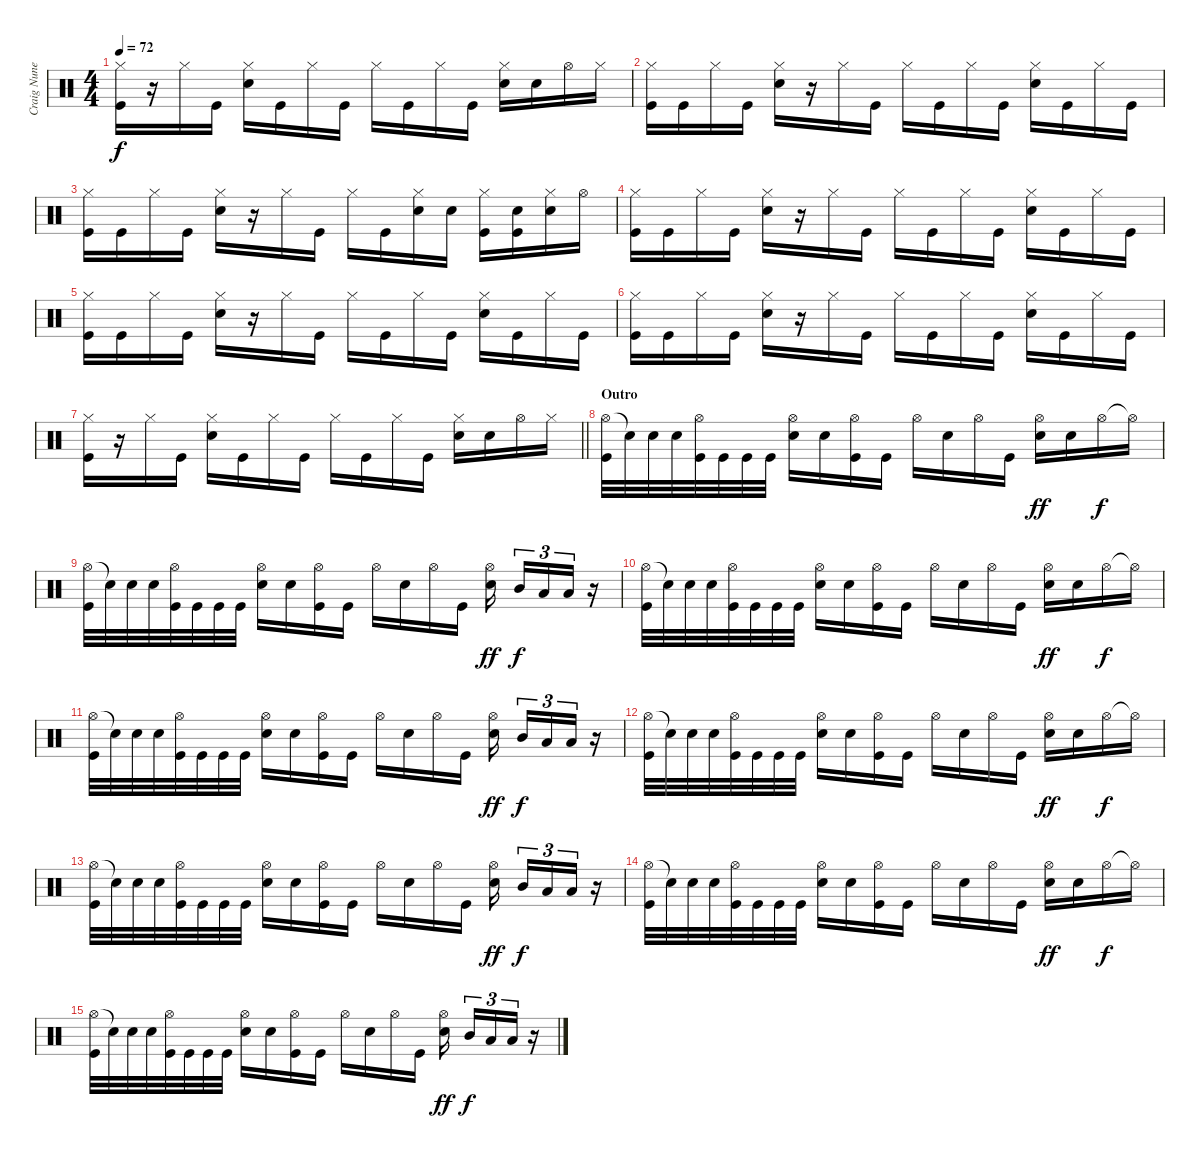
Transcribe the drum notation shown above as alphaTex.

\track ("Craig Nunenmacher" "Craig Nune") {instrument percussion}
\staff {score}
\articulation defaults
\ts (4 4)
\tempo 72
\clef neutral
\ks c
("Hi-Hat (closed)" "Kick (hit)").16{dy f} r.16 "Hi-Hat (closed)".16 "Kick (hit)".16 ("Snare (hit) 2" "Hi-Hat (closed)").16 "Kick (hit)".16 "Hi-Hat (closed)".16 "Kick (hit)".16 "Hi-Hat (closed)".16 "Kick (hit)".16 "Hi-Hat (closed)".16 "Kick (hit)".16 ("Snare (hit) 2" "Hi-Hat (closed)").16 "Snare (hit) 2".16 "Hi-Hat (open)".16 "Hi-Hat (closed)".16 |
("Hi-Hat (closed)" "Kick (hit)").16 "Kick (hit)".16 "Hi-Hat (closed)".16 "Kick (hit)".16 ("Snare (hit) 2" "Hi-Hat (closed)").16 r.16 "Hi-Hat (closed)".16 "Kick (hit)".16 "Hi-Hat (closed)".16 "Kick (hit)".16 "Hi-Hat (closed)".16 "Kick (hit)".16 ("Snare (hit) 2" "Hi-Hat (closed)").16 "Kick (hit)".16 "Hi-Hat (closed)".16 "Kick (hit)".16 |
("Hi-Hat (closed)" "Kick (hit)").16 "Kick (hit)".16 "Hi-Hat (closed)".16 "Kick (hit)".16 ("Snare (hit) 2" "Hi-Hat (closed)").16 r.16 "Hi-Hat (closed)".16 "Kick (hit)".16 "Hi-Hat (closed)".16 "Kick (hit)".16 ("Snare (hit) 2" "Hi-Hat (closed)").16 "Snare (hit) 2".16 ("Hi-Hat (closed)" "Kick (hit)").16 ("Snare (hit) 2" "Kick (hit)").16 ("Snare (hit) 2" "Hi-Hat (closed)").16 "Hi-Hat (open)".16 |
("Hi-Hat (closed)" "Kick (hit)").16 "Kick (hit)".16 "Hi-Hat (closed)".16 "Kick (hit)".16 ("Snare (hit) 2" "Hi-Hat (closed)").16 r.16 "Hi-Hat (closed)".16 "Kick (hit)".16 "Hi-Hat (closed)".16 "Kick (hit)".16 "Hi-Hat (closed)".16 "Kick (hit)".16 ("Snare (hit) 2" "Hi-Hat (closed)").16 "Kick (hit)".16 "Hi-Hat (closed)".16 "Kick (hit)".16 |
("Hi-Hat (closed)" "Kick (hit)").16 "Kick (hit)".16 "Hi-Hat (closed)".16 "Kick (hit)".16 ("Snare (hit) 2" "Hi-Hat (closed)").16 r.16 "Hi-Hat (closed)".16 "Kick (hit)".16 "Hi-Hat (closed)".16 "Kick (hit)".16 "Hi-Hat (closed)".16 "Kick (hit)".16 ("Snare (hit) 2" "Hi-Hat (closed)").16 "Kick (hit)".16 "Hi-Hat (closed)".16 "Kick (hit)".16 |
("Hi-Hat (closed)" "Kick (hit)").16 "Kick (hit)".16 "Hi-Hat (closed)".16 "Kick (hit)".16 ("Snare (hit) 2" "Hi-Hat (closed)").16 r.16 "Hi-Hat (closed)".16 "Kick (hit)".16 "Hi-Hat (closed)".16 "Kick (hit)".16 "Hi-Hat (closed)".16 "Kick (hit)".16 ("Snare (hit) 2" "Hi-Hat (closed)").16 "Kick (hit)".16 "Hi-Hat (closed)".16 "Kick (hit)".16 |
\barLineRight lightlight
("Hi-Hat (closed)" "Kick (hit)").16 r.16 "Hi-Hat (closed)".16 "Kick (hit)".16 ("Snare (hit) 2" "Hi-Hat (closed)").16 "Kick (hit)".16 "Hi-Hat (closed)".16 "Kick (hit)".16 "Hi-Hat (closed)".16 "Kick (hit)".16 "Hi-Hat (closed)".16 "Kick (hit)".16 ("Snare (hit) 2" "Hi-Hat (closed)").16 "Snare (hit) 2".16 "Hi-Hat (open)".16 "Hi-Hat (closed)".16 |
\section ("" "Outro")
("Hi-Hat (open)" "Kick (hit)").32 "Snare (hit)"{t}.32 "Snare (hit) 2".32 "Snare (hit) 2".32 ("Hi-Hat (open)" "Kick (hit)").32 "Kick (hit)".32 "Kick (hit)".32 "Kick (hit)".32 ("Snare (hit) 2" "Hi-Hat (open)").16 "Snare (hit) 2".16 ("Hi-Hat (open)" "Kick (hit)").16 "Kick (hit)".16 "Hi-Hat (open)".16 "Snare (hit) 2".16 "Hi-Hat (open)".16 "Kick (hit)".16 ("Snare (hit) 2" "Hi-Hat (open)").16{dy ff} "Snare (hit) 2".16 "Hi-Hat (open)".16{dy f} "Hi-Hat (open)"{t}.16 |
("Hi-Hat (open)" "Kick (hit)").32 "Snare (hit)"{t}.32 "Snare (hit) 2".32 "Snare (hit) 2".32 ("Hi-Hat (open)" "Kick (hit)").32 "Kick (hit)".32 "Kick (hit)".32 "Kick (hit)".32 ("Snare (hit) 2" "Hi-Hat (open)").16 "Snare (hit) 2".16 ("Hi-Hat (open)" "Kick (hit)").16 "Kick (hit)".16 "Hi-Hat (open)".16 "Snare (hit) 2".16 "Hi-Hat (open)".16 "Kick (hit)".16 ("Snare (hit) 2" "Hi-Hat (open)").16{dy ff beam splitsecondary} "Mid Tom (hit)".16{tu (3 2) dy f} "Low Tom (hit)".16{tu (3 2)} "Low Floor Tom (hit)".16{tu (3 2)} r.16 |
("Hi-Hat (open)" "Kick (hit)").32 "Snare (hit)"{t}.32 "Snare (hit) 2".32 "Snare (hit) 2".32 ("Hi-Hat (open)" "Kick (hit)").32 "Kick (hit)".32 "Kick (hit)".32 "Kick (hit)".32 ("Snare (hit) 2" "Hi-Hat (open)").16 "Snare (hit) 2".16 ("Hi-Hat (open)" "Kick (hit)").16 "Kick (hit)".16 "Hi-Hat (open)".16 "Snare (hit) 2".16 "Hi-Hat (open)".16 "Kick (hit)".16 ("Snare (hit) 2" "Hi-Hat (open)").16{dy ff} "Snare (hit) 2".16 "Hi-Hat (open)".16{dy f} "Hi-Hat (open)"{t}.16 |
("Hi-Hat (open)" "Kick (hit)").32 "Snare (hit)"{t}.32 "Snare (hit) 2".32 "Snare (hit) 2".32 ("Hi-Hat (open)" "Kick (hit)").32 "Kick (hit)".32 "Kick (hit)".32 "Kick (hit)".32 ("Snare (hit) 2" "Hi-Hat (open)").16 "Snare (hit) 2".16 ("Hi-Hat (open)" "Kick (hit)").16 "Kick (hit)".16 "Hi-Hat (open)".16 "Snare (hit) 2".16 "Hi-Hat (open)".16 "Kick (hit)".16 ("Snare (hit) 2" "Hi-Hat (open)").16{dy ff beam splitsecondary} "Mid Tom (hit)".16{tu (3 2) dy f} "Low Tom (hit)".16{tu (3 2)} "Low Floor Tom (hit)".16{tu (3 2)} r.16 |
("Hi-Hat (open)" "Kick (hit)").32 "Snare (hit)"{t}.32 "Snare (hit) 2".32 "Snare (hit) 2".32 ("Hi-Hat (open)" "Kick (hit)").32 "Kick (hit)".32 "Kick (hit)".32 "Kick (hit)".32 ("Snare (hit) 2" "Hi-Hat (open)").16 "Snare (hit) 2".16 ("Hi-Hat (open)" "Kick (hit)").16 "Kick (hit)".16 "Hi-Hat (open)".16 "Snare (hit) 2".16 "Hi-Hat (open)".16 "Kick (hit)".16 ("Snare (hit) 2" "Hi-Hat (open)").16{dy ff} "Snare (hit) 2".16 "Hi-Hat (open)".16{dy f} "Hi-Hat (open)"{t}.16 |
("Hi-Hat (open)" "Kick (hit)").32 "Snare (hit)"{t}.32 "Snare (hit) 2".32 "Snare (hit) 2".32 ("Hi-Hat (open)" "Kick (hit)").32 "Kick (hit)".32 "Kick (hit)".32 "Kick (hit)".32 ("Snare (hit) 2" "Hi-Hat (open)").16 "Snare (hit) 2".16 ("Hi-Hat (open)" "Kick (hit)").16 "Kick (hit)".16 "Hi-Hat (open)".16 "Snare (hit) 2".16 "Hi-Hat (open)".16 "Kick (hit)".16 ("Snare (hit) 2" "Hi-Hat (open)").16{dy ff beam splitsecondary} "Mid Tom (hit)".16{tu (3 2) dy f} "Low Tom (hit)".16{tu (3 2)} "Low Floor Tom (hit)".16{tu (3 2)} r.16 |
("Hi-Hat (open)" "Kick (hit)").32 "Snare (hit)"{t}.32 "Snare (hit) 2".32 "Snare (hit) 2".32 ("Hi-Hat (open)" "Kick (hit)").32 "Kick (hit)".32 "Kick (hit)".32 "Kick (hit)".32 ("Snare (hit) 2" "Hi-Hat (open)").16 "Snare (hit) 2".16 ("Hi-Hat (open)" "Kick (hit)").16 "Kick (hit)".16 "Hi-Hat (open)".16 "Snare (hit) 2".16 "Hi-Hat (open)".16 "Kick (hit)".16 ("Snare (hit) 2" "Hi-Hat (open)").16{dy ff} "Snare (hit) 2".16 "Hi-Hat (open)".16{dy f} "Hi-Hat (open)"{t}.16 |
("Hi-Hat (open)" "Kick (hit)").32 "Snare (hit)"{t}.32 "Snare (hit) 2".32 "Snare (hit) 2".32 ("Hi-Hat (open)" "Kick (hit)").32 "Kick (hit)".32 "Kick (hit)".32 "Kick (hit)".32 ("Snare (hit) 2" "Hi-Hat (open)").16 "Snare (hit) 2".16 ("Hi-Hat (open)" "Kick (hit)").16 "Kick (hit)".16 "Hi-Hat (open)".16 "Snare (hit) 2".16 "Hi-Hat (open)".16 "Kick (hit)".16 ("Snare (hit) 2" "Hi-Hat (open)").16{dy ff beam splitsecondary} "Mid Tom (hit)".16{tu (3 2) dy f} "Low Tom (hit)".16{tu (3 2)} "Low Floor Tom (hit)".16{tu (3 2)} r.16
